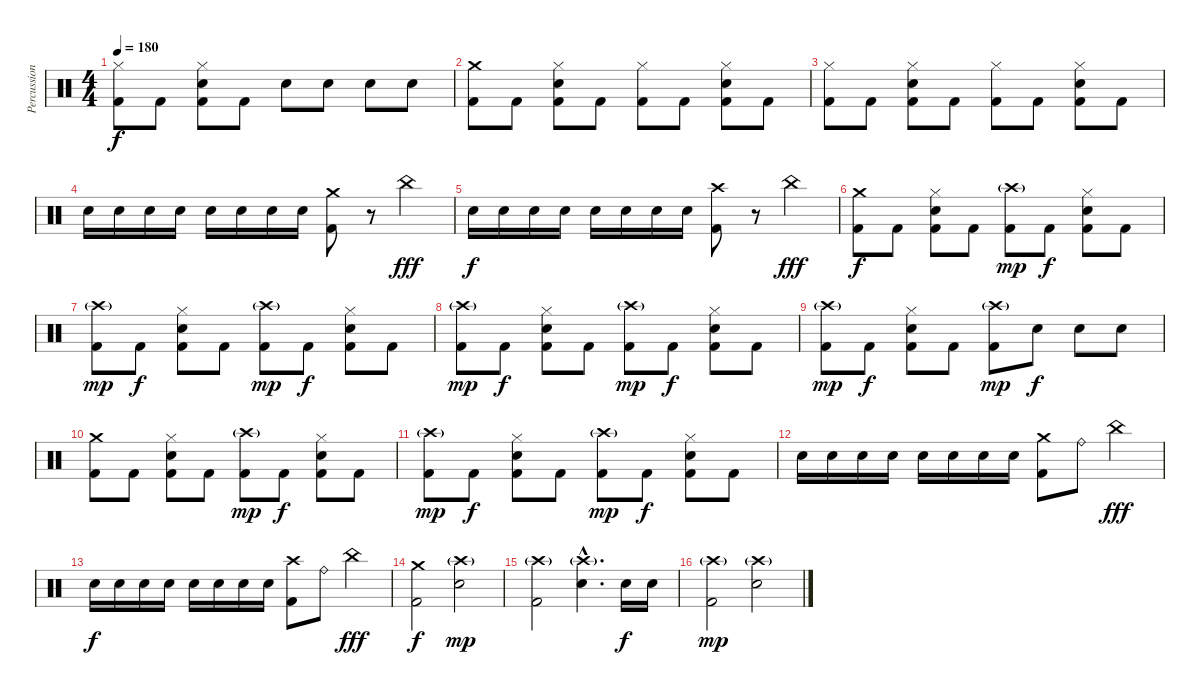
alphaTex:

\track ("Percussioni" "Percussion") {instrument percussion}
\staff {score}
\articulation defaults
\ts (4 4)
\tempo 180
\clef neutral
\ks c
("Hi-Hat (closed)" "Kick (hit) 2").8{dy f} "Kick (hit) 2".8 ("Hi-Hat (closed)" "Electric Snare (hit)" "Kick (hit) 2").8 "Kick (hit) 2".8 "Electric Snare (hit)".8 "Electric Snare (hit)".8 "Electric Snare (hit)".8 "Electric Snare (hit)".8 |
("Crash medium (hit)" "Kick (hit) 2").8 "Kick (hit) 2".8 ("Hi-Hat (closed)" "Electric Snare (hit)" "Kick (hit) 2").8 "Kick (hit) 2".8 ("Hi-Hat (closed)" "Kick (hit) 2").8 "Kick (hit) 2".8 ("Hi-Hat (closed)" "Electric Snare (hit)" "Kick (hit) 2").8 "Kick (hit) 2".8 |
("Hi-Hat (closed)" "Kick (hit) 2").8 "Kick (hit) 2".8 ("Hi-Hat (closed)" "Electric Snare (hit)" "Kick (hit) 2").8 "Kick (hit) 2".8 ("Hi-Hat (closed)" "Kick (hit) 2").8 "Kick (hit) 2".8 ("Hi-Hat (closed)" "Electric Snare (hit)" "Kick (hit) 2").8 "Kick (hit) 2".8 |
"Electric Snare (hit)".16 "Electric Snare (hit)".16 "Electric Snare (hit)".16 "Electric Snare (hit)".16 "Electric Snare (hit)".16 "Electric Snare (hit)".16 "Electric Snare (hit)".16 "Electric Snare (hit)".16 ("Crash medium (hit)" "Kick (hit) 2").8 r.8 "China (hit)".4{dy fff} |
"Electric Snare (hit)".16{dy f} "Electric Snare (hit)".16 "Electric Snare (hit)".16 "Electric Snare (hit)".16 "Electric Snare (hit)".16 "Electric Snare (hit)".16 "Electric Snare (hit)".16 "Electric Snare (hit)".16 ("Crash high (hit)" "Kick (hit) 2").8 r.8 "China (hit)".4{dy fff} |
("Crash medium (hit)" "Kick (hit) 2").8{dy f} "Kick (hit) 2".8 ("Hi-Hat (closed)" "Electric Snare (hit)" "Kick (hit) 2").8 "Kick (hit) 2".8 ("Crash high (hit)"{g} "Kick (hit) 2").8{dy mp} "Kick (hit) 2".8{dy f} ("Hi-Hat (closed)" "Electric Snare (hit)" "Kick (hit) 2").8 "Kick (hit) 2".8 |
("Crash high (hit)"{g} "Kick (hit) 2").8{dy mp} "Kick (hit) 2".8{dy f} ("Hi-Hat (closed)" "Electric Snare (hit)" "Kick (hit) 2").8 "Kick (hit) 2".8 ("Crash high (hit)"{g} "Kick (hit) 2").8{dy mp} "Kick (hit) 2".8{dy f} ("Hi-Hat (closed)" "Electric Snare (hit)" "Kick (hit) 2").8 "Kick (hit) 2".8 |
("Crash high (hit)"{g} "Kick (hit) 2").8{dy mp} "Kick (hit) 2".8{dy f} ("Hi-Hat (closed)" "Electric Snare (hit)" "Kick (hit) 2").8 "Kick (hit) 2".8 ("Crash high (hit)"{g} "Kick (hit) 2").8{dy mp} "Kick (hit) 2".8{dy f} ("Hi-Hat (closed)" "Electric Snare (hit)" "Kick (hit) 2").8 "Kick (hit) 2".8 |
("Crash high (hit)"{g} "Kick (hit) 2").8{dy mp} "Kick (hit) 2".8{dy f} ("Hi-Hat (closed)" "Electric Snare (hit)" "Kick (hit) 2").8 "Kick (hit) 2".8 ("Crash high (hit)"{g} "Kick (hit) 2").8{dy mp} "Electric Snare (hit)".8{dy f} "Electric Snare (hit)".8 "Electric Snare (hit)".8 |
("Crash medium (hit)" "Kick (hit) 2").8 "Kick (hit) 2".8 ("Hi-Hat (closed)" "Electric Snare (hit)" "Kick (hit) 2").8 "Kick (hit) 2".8 ("Crash high (hit)"{g} "Kick (hit) 2").8{dy mp} "Kick (hit) 2".8{dy f} ("Hi-Hat (closed)" "Electric Snare (hit)" "Kick (hit) 2").8 "Kick (hit) 2".8 |
("Crash high (hit)"{g} "Kick (hit) 2").8{dy mp} "Kick (hit) 2".8{dy f} ("Hi-Hat (closed)" "Electric Snare (hit)" "Kick (hit) 2").8 "Kick (hit) 2".8 ("Crash high (hit)"{g} "Kick (hit) 2").8{dy mp} "Kick (hit) 2".8{dy f} ("Hi-Hat (closed)" "Electric Snare (hit)" "Kick (hit) 2").8 "Kick (hit) 2".8 |
"Electric Snare (hit)".16 "Electric Snare (hit)".16 "Electric Snare (hit)".16 "Electric Snare (hit)".16 "Electric Snare (hit)".16 "Electric Snare (hit)".16 "Electric Snare (hit)".16 "Electric Snare (hit)".16 ("Crash medium (hit)" "Kick (hit) 2").8 "Ride (bell)".8 "China (hit)".4{dy fff} |
"Electric Snare (hit)".16{dy f} "Electric Snare (hit)".16 "Electric Snare (hit)".16 "Electric Snare (hit)".16 "Electric Snare (hit)".16 "Electric Snare (hit)".16 "Electric Snare (hit)".16 "Electric Snare (hit)".16 ("Crash high (hit)" "Kick (hit) 2").8 "Ride (bell)".8 "China (hit)".4{dy fff} |
("Crash medium (hit)" "Kick (hit) 2").2{dy f} ("Crash high (hit)"{g} "Electric Snare (hit)").2{dy mp} |
("Crash high (hit)"{g} "Kick (hit) 2").2 ("Crash high (hit)"{g hac} "Electric Snare (hit)"{hac}).4{d} "Electric Snare (hit)".16{dy f} "Electric Snare (hit)".16 |
("Crash high (hit)"{g} "Kick (hit) 2").2{dy mp} ("Crash high (hit)"{g} "Electric Snare (hit)").2
